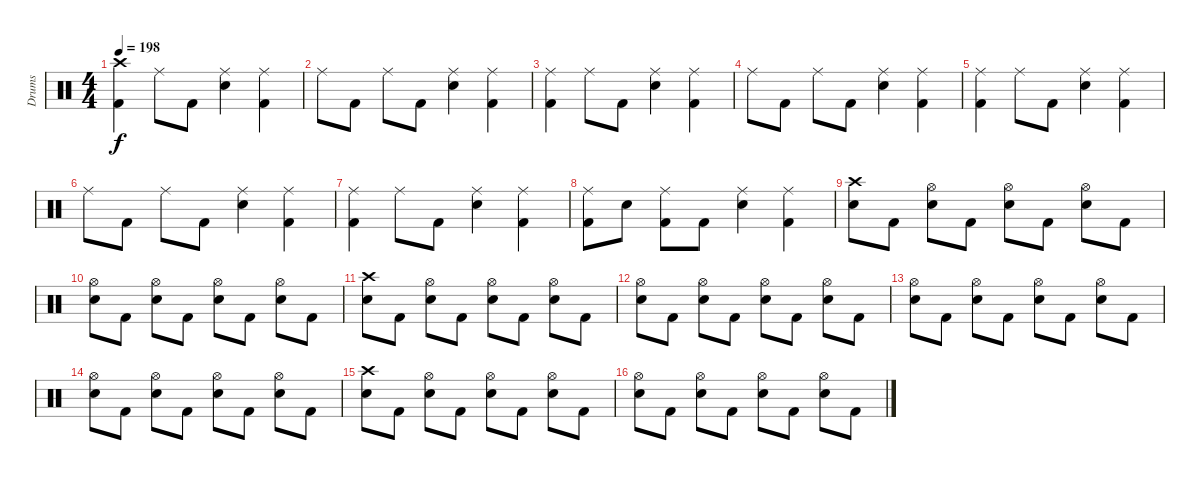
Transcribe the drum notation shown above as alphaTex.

\track ("Drums" "Drums") {instrument percussion}
\staff {score}
\articulation defaults
\ts (4 4)
\tempo 198
\clef neutral
\ks c
("Crash high (hit)" "Kick (hit) 2").4{dy f} "Ride (middle)".8 "Kick (hit) 2".8 ("Ride (middle)" "Snare (hit) 2").4 ("Ride (middle)" "Kick (hit) 2").4 |
"Ride (middle)".8 "Kick (hit) 2".8 "Ride (middle)".8 "Kick (hit) 2".8 ("Ride (middle)" "Snare (hit) 2").4 ("Ride (middle)" "Kick (hit) 2").4 |
("Ride (middle)" "Kick (hit) 2").4 "Ride (middle)".8 "Kick (hit) 2".8 ("Ride (middle)" "Snare (hit) 2").4 ("Ride (middle)" "Kick (hit) 2").4 |
"Ride (middle)".8 "Kick (hit) 2".8 "Ride (middle)".8 "Kick (hit) 2".8 ("Ride (middle)" "Snare (hit) 2").4 ("Ride (middle)" "Kick (hit) 2").4 |
("Ride (middle)" "Kick (hit) 2").4 "Ride (middle)".8 "Kick (hit) 2".8 ("Ride (middle)" "Snare (hit) 2").4 ("Ride (middle)" "Kick (hit) 2").4 |
"Ride (middle)".8 "Kick (hit) 2".8 "Ride (middle)".8 "Kick (hit) 2".8 ("Ride (middle)" "Snare (hit) 2").4 ("Ride (middle)" "Kick (hit) 2").4 |
("Ride (middle)" "Kick (hit) 2").4 "Ride (middle)".8 "Kick (hit) 2".8 ("Ride (middle)" "Snare (hit) 2").4 ("Ride (middle)" "Kick (hit) 2").4 |
("Ride (middle)" "Kick (hit) 2").8 "Snare (hit) 2".8 ("Ride (middle)" "Kick (hit) 2").8 "Kick (hit) 2".8 ("Ride (middle)" "Snare (hit) 2").4 ("Ride (middle)" "Kick (hit) 2").4 |
("Crash high (hit)" "Snare (hit) 2").8 "Kick (hit) 2".8 ("Hi-Hat (open)" "Snare (hit) 2").8 "Kick (hit) 2".8 ("Hi-Hat (open)" "Snare (hit) 2").8 "Kick (hit) 2".8 ("Hi-Hat (open)" "Snare (hit) 2").8 "Kick (hit) 2".8 |
("Hi-Hat (open)" "Snare (hit) 2").8 "Kick (hit) 2".8 ("Hi-Hat (open)" "Snare (hit) 2").8 "Kick (hit) 2".8 ("Hi-Hat (open)" "Snare (hit) 2").8 "Kick (hit) 2".8 ("Hi-Hat (open)" "Snare (hit) 2").8 "Kick (hit) 2".8 |
("Crash high (hit)" "Snare (hit) 2").8 "Kick (hit) 2".8 ("Hi-Hat (open)" "Snare (hit) 2").8 "Kick (hit) 2".8 ("Hi-Hat (open)" "Snare (hit) 2").8 "Kick (hit) 2".8 ("Hi-Hat (open)" "Snare (hit) 2").8 "Kick (hit) 2".8 |
("Hi-Hat (open)" "Snare (hit) 2").8 "Kick (hit) 2".8 ("Hi-Hat (open)" "Snare (hit) 2").8 "Kick (hit) 2".8 ("Hi-Hat (open)" "Snare (hit) 2").8 "Kick (hit) 2".8 ("Hi-Hat (open)" "Snare (hit) 2").8 "Kick (hit) 2".8 |
("Hi-Hat (open)" "Snare (hit) 2").8 "Kick (hit) 2".8 ("Hi-Hat (open)" "Snare (hit) 2").8 "Kick (hit) 2".8 ("Hi-Hat (open)" "Snare (hit) 2").8 "Kick (hit) 2".8 ("Hi-Hat (open)" "Snare (hit) 2").8 "Kick (hit) 2".8 |
("Hi-Hat (open)" "Snare (hit) 2").8 "Kick (hit) 2".8 ("Hi-Hat (open)" "Snare (hit) 2").8 "Kick (hit) 2".8 ("Hi-Hat (open)" "Snare (hit) 2").8 "Kick (hit) 2".8 ("Hi-Hat (open)" "Snare (hit) 2").8 "Kick (hit) 2".8 |
("Crash high (hit)" "Snare (hit) 2").8 "Kick (hit) 2".8 ("Hi-Hat (open)" "Snare (hit) 2").8 "Kick (hit) 2".8 ("Hi-Hat (open)" "Snare (hit) 2").8 "Kick (hit) 2".8 ("Hi-Hat (open)" "Snare (hit) 2").8 "Kick (hit) 2".8 |
("Hi-Hat (open)" "Snare (hit) 2").8 "Kick (hit) 2".8 ("Hi-Hat (open)" "Snare (hit) 2").8 "Kick (hit) 2".8 ("Hi-Hat (open)" "Snare (hit) 2").8 "Kick (hit) 2".8 ("Hi-Hat (open)" "Snare (hit) 2").8 "Kick (hit) 2".8
